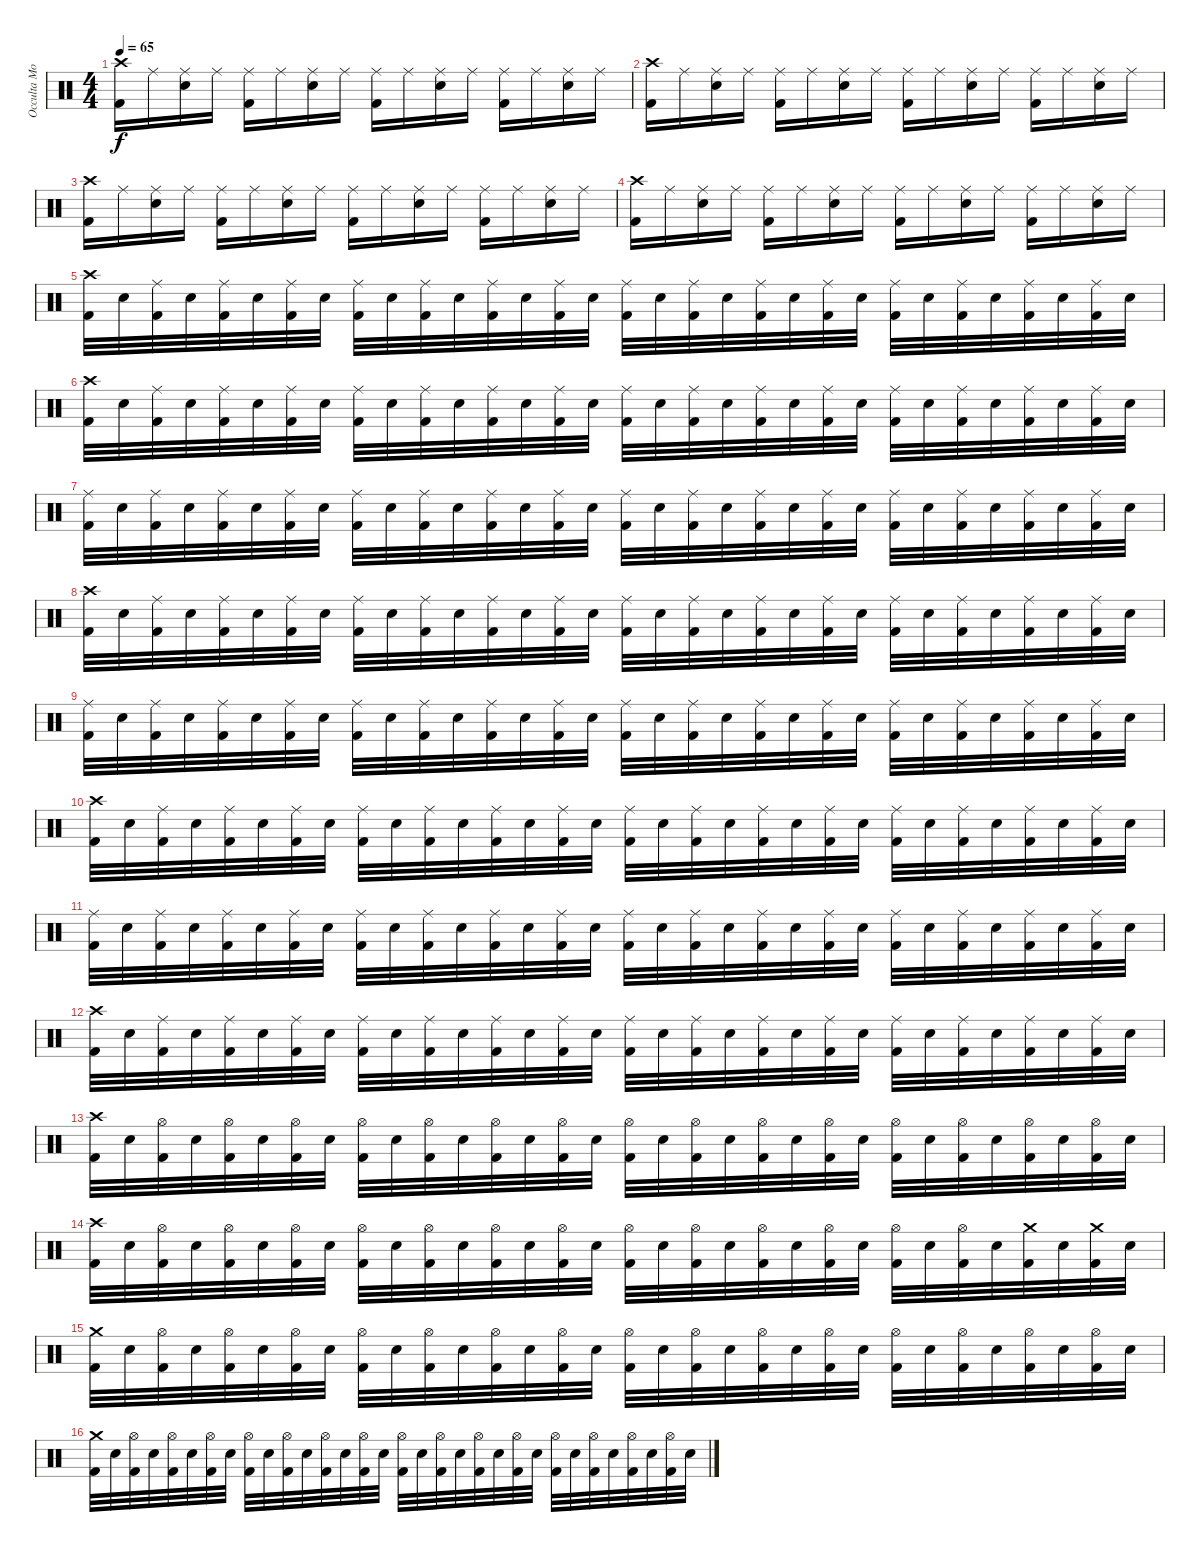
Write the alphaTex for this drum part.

\track ("Occulta Mors" "Occulta Mo") {instrument percussion}
\staff {score}
\articulation defaults
\ts (4 4)
\tempo 65
\clef neutral
\ks c
("Crash high (hit)" "Kick (hit) 2").16{dy f} "Ride (middle)".16 ("Ride (middle)" "Snare (hit) 2").16 "Ride (middle)".16 ("Ride (middle)" "Kick (hit) 2").16 "Ride (middle)".16 ("Ride (middle)" "Snare (hit) 2").16 "Ride (middle)".16 ("Ride (middle)" "Kick (hit) 2").16 "Ride (middle)".16 ("Ride (middle)" "Snare (hit) 2").16 "Ride (middle)".16 ("Ride (middle)" "Kick (hit) 2").16 "Ride (middle)".16 ("Ride (middle)" "Snare (hit) 2").16 "Ride (middle)".16 |
("Crash high (hit)" "Kick (hit) 2").16 "Ride (middle)".16 ("Ride (middle)" "Snare (hit) 2").16 "Ride (middle)".16 ("Ride (middle)" "Kick (hit) 2").16 "Ride (middle)".16 ("Ride (middle)" "Snare (hit) 2").16 "Ride (middle)".16 ("Ride (middle)" "Kick (hit) 2").16 "Ride (middle)".16 ("Ride (middle)" "Snare (hit) 2").16 "Ride (middle)".16 ("Ride (middle)" "Kick (hit) 2").16 "Ride (middle)".16 ("Ride (middle)" "Snare (hit) 2").16 "Ride (middle)".16 |
("Crash high (hit)" "Kick (hit) 2").16 "Ride (middle)".16 ("Ride (middle)" "Snare (hit) 2").16 "Ride (middle)".16 ("Ride (middle)" "Kick (hit) 2").16 "Ride (middle)".16 ("Ride (middle)" "Snare (hit) 2").16 "Ride (middle)".16 ("Ride (middle)" "Kick (hit) 2").16 "Ride (middle)".16 ("Ride (middle)" "Snare (hit) 2").16 "Ride (middle)".16 ("Ride (middle)" "Kick (hit) 2").16 "Ride (middle)".16 ("Ride (middle)" "Snare (hit) 2").16 "Ride (middle)".16 |
("Crash high (hit)" "Kick (hit) 2").16 "Ride (middle)".16 ("Ride (middle)" "Snare (hit) 2").16 "Ride (middle)".16 ("Ride (middle)" "Kick (hit) 2").16 "Ride (middle)".16 ("Ride (middle)" "Snare (hit) 2").16 "Ride (middle)".16 ("Ride (middle)" "Kick (hit) 2").16 "Ride (middle)".16 ("Ride (middle)" "Snare (hit) 2").16 "Ride (middle)".16 ("Ride (middle)" "Kick (hit) 2").16 "Ride (middle)".16 ("Ride (middle)" "Snare (hit) 2").16 "Ride (middle)".16 |
("Crash high (hit)" "Kick (hit) 2").32 "Snare (hit) 2".32 ("Ride (middle)" "Kick (hit) 2").32 "Snare (hit) 2".32 ("Ride (middle)" "Kick (hit) 2").32 "Snare (hit) 2".32 ("Ride (middle)" "Kick (hit) 2").32 "Snare (hit) 2".32 ("Ride (middle)" "Kick (hit) 2").32 "Snare (hit) 2".32 ("Ride (middle)" "Kick (hit) 2").32 "Snare (hit) 2".32 ("Ride (middle)" "Kick (hit) 2").32 "Snare (hit) 2".32 ("Ride (middle)" "Kick (hit) 2").32 "Snare (hit) 2".32 ("Ride (middle)" "Kick (hit) 2").32 "Snare (hit) 2".32 ("Ride (middle)" "Kick (hit) 2").32 "Snare (hit) 2".32 ("Ride (middle)" "Kick (hit) 2").32 "Snare (hit) 2".32 ("Ride (middle)" "Kick (hit) 2").32 "Snare (hit) 2".32 ("Ride (middle)" "Kick (hit) 2").32 "Snare (hit) 2".32 ("Ride (middle)" "Kick (hit) 2").32 "Snare (hit) 2".32 ("Ride (middle)" "Kick (hit) 2").32 "Snare (hit) 2".32 ("Ride (middle)" "Kick (hit) 2").32 "Snare (hit) 2".32 |
("Crash high (hit)" "Kick (hit) 2").32 "Snare (hit) 2".32 ("Ride (middle)" "Kick (hit) 2").32 "Snare (hit) 2".32 ("Ride (middle)" "Kick (hit) 2").32 "Snare (hit) 2".32 ("Ride (middle)" "Kick (hit) 2").32 "Snare (hit) 2".32 ("Ride (middle)" "Kick (hit) 2").32 "Snare (hit) 2".32 ("Ride (middle)" "Kick (hit) 2").32 "Snare (hit) 2".32 ("Ride (middle)" "Kick (hit) 2").32 "Snare (hit) 2".32 ("Ride (middle)" "Kick (hit) 2").32 "Snare (hit) 2".32 ("Ride (middle)" "Kick (hit) 2").32 "Snare (hit) 2".32 ("Ride (middle)" "Kick (hit) 2").32 "Snare (hit) 2".32 ("Ride (middle)" "Kick (hit) 2").32 "Snare (hit) 2".32 ("Ride (middle)" "Kick (hit) 2").32 "Snare (hit) 2".32 ("Ride (middle)" "Kick (hit) 2").32 "Snare (hit) 2".32 ("Ride (middle)" "Kick (hit) 2").32 "Snare (hit) 2".32 ("Ride (middle)" "Kick (hit) 2").32 "Snare (hit) 2".32 ("Ride (middle)" "Kick (hit) 2").32 "Snare (hit) 2".32 |
("Ride (middle)" "Kick (hit) 2").32 "Snare (hit) 2".32 ("Ride (middle)" "Kick (hit) 2").32 "Snare (hit) 2".32 ("Ride (middle)" "Kick (hit) 2").32 "Snare (hit) 2".32 ("Ride (middle)" "Kick (hit) 2").32 "Snare (hit) 2".32 ("Ride (middle)" "Kick (hit) 2").32 "Snare (hit) 2".32 ("Ride (middle)" "Kick (hit) 2").32 "Snare (hit) 2".32 ("Ride (middle)" "Kick (hit) 2").32 "Snare (hit) 2".32 ("Ride (middle)" "Kick (hit) 2").32 "Snare (hit) 2".32 ("Ride (middle)" "Kick (hit) 2").32 "Snare (hit) 2".32 ("Ride (middle)" "Kick (hit) 2").32 "Snare (hit) 2".32 ("Ride (middle)" "Kick (hit) 2").32 "Snare (hit) 2".32 ("Ride (middle)" "Kick (hit) 2").32 "Snare (hit) 2".32 ("Ride (middle)" "Kick (hit) 2").32 "Snare (hit) 2".32 ("Ride (middle)" "Kick (hit) 2").32 "Snare (hit) 2".32 ("Ride (middle)" "Kick (hit) 2").32 "Snare (hit) 2".32 ("Ride (middle)" "Kick (hit) 2").32 "Snare (hit) 2".32 |
("Crash high (hit)" "Kick (hit) 2").32 "Snare (hit) 2".32 ("Ride (middle)" "Kick (hit) 2").32 "Snare (hit) 2".32 ("Ride (middle)" "Kick (hit) 2").32 "Snare (hit) 2".32 ("Ride (middle)" "Kick (hit) 2").32 "Snare (hit) 2".32 ("Ride (middle)" "Kick (hit) 2").32 "Snare (hit) 2".32 ("Ride (middle)" "Kick (hit) 2").32 "Snare (hit) 2".32 ("Ride (middle)" "Kick (hit) 2").32 "Snare (hit) 2".32 ("Ride (middle)" "Kick (hit) 2").32 "Snare (hit) 2".32 ("Ride (middle)" "Kick (hit) 2").32 "Snare (hit) 2".32 ("Ride (middle)" "Kick (hit) 2").32 "Snare (hit) 2".32 ("Ride (middle)" "Kick (hit) 2").32 "Snare (hit) 2".32 ("Ride (middle)" "Kick (hit) 2").32 "Snare (hit) 2".32 ("Ride (middle)" "Kick (hit) 2").32 "Snare (hit) 2".32 ("Ride (middle)" "Kick (hit) 2").32 "Snare (hit) 2".32 ("Ride (middle)" "Kick (hit) 2").32 "Snare (hit) 2".32 ("Ride (middle)" "Kick (hit) 2").32 "Snare (hit) 2".32 |
("Ride (middle)" "Kick (hit) 2").32 "Snare (hit) 2".32 ("Ride (middle)" "Kick (hit) 2").32 "Snare (hit) 2".32 ("Ride (middle)" "Kick (hit) 2").32 "Snare (hit) 2".32 ("Ride (middle)" "Kick (hit) 2").32 "Snare (hit) 2".32 ("Ride (middle)" "Kick (hit) 2").32 "Snare (hit) 2".32 ("Ride (middle)" "Kick (hit) 2").32 "Snare (hit) 2".32 ("Ride (middle)" "Kick (hit) 2").32 "Snare (hit) 2".32 ("Ride (middle)" "Kick (hit) 2").32 "Snare (hit) 2".32 ("Ride (middle)" "Kick (hit) 2").32 "Snare (hit) 2".32 ("Ride (middle)" "Kick (hit) 2").32 "Snare (hit) 2".32 ("Ride (middle)" "Kick (hit) 2").32 "Snare (hit) 2".32 ("Ride (middle)" "Kick (hit) 2").32 "Snare (hit) 2".32 ("Ride (middle)" "Kick (hit) 2").32 "Snare (hit) 2".32 ("Ride (middle)" "Kick (hit) 2").32 "Snare (hit) 2".32 ("Ride (middle)" "Kick (hit) 2").32 "Snare (hit) 2".32 ("Ride (middle)" "Kick (hit) 2").32 "Snare (hit) 2".32 |
("Crash high (hit)" "Kick (hit) 2").32 "Snare (hit) 2".32 ("Ride (middle)" "Kick (hit) 2").32 "Snare (hit) 2".32 ("Ride (middle)" "Kick (hit) 2").32 "Snare (hit) 2".32 ("Ride (middle)" "Kick (hit) 2").32 "Snare (hit) 2".32 ("Ride (middle)" "Kick (hit) 2").32 "Snare (hit) 2".32 ("Ride (middle)" "Kick (hit) 2").32 "Snare (hit) 2".32 ("Ride (middle)" "Kick (hit) 2").32 "Snare (hit) 2".32 ("Ride (middle)" "Kick (hit) 2").32 "Snare (hit) 2".32 ("Ride (middle)" "Kick (hit) 2").32 "Snare (hit) 2".32 ("Ride (middle)" "Kick (hit) 2").32 "Snare (hit) 2".32 ("Ride (middle)" "Kick (hit) 2").32 "Snare (hit) 2".32 ("Ride (middle)" "Kick (hit) 2").32 "Snare (hit) 2".32 ("Ride (middle)" "Kick (hit) 2").32 "Snare (hit) 2".32 ("Ride (middle)" "Kick (hit) 2").32 "Snare (hit) 2".32 ("Ride (middle)" "Kick (hit) 2").32 "Snare (hit) 2".32 ("Ride (middle)" "Kick (hit) 2").32 "Snare (hit) 2".32 |
("Ride (middle)" "Kick (hit) 2").32 "Snare (hit) 2".32 ("Ride (middle)" "Kick (hit) 2").32 "Snare (hit) 2".32 ("Ride (middle)" "Kick (hit) 2").32 "Snare (hit) 2".32 ("Ride (middle)" "Kick (hit) 2").32 "Snare (hit) 2".32 ("Ride (middle)" "Kick (hit) 2").32 "Snare (hit) 2".32 ("Ride (middle)" "Kick (hit) 2").32 "Snare (hit) 2".32 ("Ride (middle)" "Kick (hit) 2").32 "Snare (hit) 2".32 ("Ride (middle)" "Kick (hit) 2").32 "Snare (hit) 2".32 ("Ride (middle)" "Kick (hit) 2").32 "Snare (hit) 2".32 ("Ride (middle)" "Kick (hit) 2").32 "Snare (hit) 2".32 ("Ride (middle)" "Kick (hit) 2").32 "Snare (hit) 2".32 ("Ride (middle)" "Kick (hit) 2").32 "Snare (hit) 2".32 ("Ride (middle)" "Kick (hit) 2").32 "Snare (hit) 2".32 ("Ride (middle)" "Kick (hit) 2").32 "Snare (hit) 2".32 ("Ride (middle)" "Kick (hit) 2").32 "Snare (hit) 2".32 ("Ride (middle)" "Kick (hit) 2").32 "Snare (hit) 2".32 |
("Crash high (hit)" "Kick (hit) 2").32 "Snare (hit) 2".32 ("Ride (middle)" "Kick (hit) 2").32 "Snare (hit) 2".32 ("Ride (middle)" "Kick (hit) 2").32 "Snare (hit) 2".32 ("Ride (middle)" "Kick (hit) 2").32 "Snare (hit) 2".32 ("Ride (middle)" "Kick (hit) 2").32 "Snare (hit) 2".32 ("Ride (middle)" "Kick (hit) 2").32 "Snare (hit) 2".32 ("Ride (middle)" "Kick (hit) 2").32 "Snare (hit) 2".32 ("Ride (middle)" "Kick (hit) 2").32 "Snare (hit) 2".32 ("Ride (middle)" "Kick (hit) 2").32 "Snare (hit) 2".32 ("Ride (middle)" "Kick (hit) 2").32 "Snare (hit) 2".32 ("Ride (middle)" "Kick (hit) 2").32 "Snare (hit) 2".32 ("Ride (middle)" "Kick (hit) 2").32 "Snare (hit) 2".32 ("Ride (middle)" "Kick (hit) 2").32 "Snare (hit) 2".32 ("Ride (middle)" "Kick (hit) 2").32 "Snare (hit) 2".32 ("Ride (middle)" "Kick (hit) 2").32 "Snare (hit) 2".32 ("Ride (middle)" "Kick (hit) 2").32 "Snare (hit) 2".32 |
("Crash high (hit)" "Kick (hit) 2").32 "Snare (hit) 2".32 ("Hi-Hat (open)" "Kick (hit) 2").32 "Snare (hit) 2".32 ("Hi-Hat (open)" "Kick (hit) 2").32 "Snare (hit) 2".32 ("Hi-Hat (open)" "Kick (hit) 2").32 "Snare (hit) 2".32 ("Hi-Hat (open)" "Kick (hit) 2").32 "Snare (hit) 2".32 ("Hi-Hat (open)" "Kick (hit) 2").32 "Snare (hit) 2".32 ("Hi-Hat (open)" "Kick (hit) 2").32 "Snare (hit) 2".32 ("Hi-Hat (open)" "Kick (hit) 2").32 "Snare (hit) 2".32 ("Hi-Hat (open)" "Kick (hit) 2").32 "Snare (hit) 2".32 ("Hi-Hat (open)" "Kick (hit) 2").32 "Snare (hit) 2".32 ("Hi-Hat (open)" "Kick (hit) 2").32 "Snare (hit) 2".32 ("Hi-Hat (open)" "Kick (hit) 2").32 "Snare (hit) 2".32 ("Hi-Hat (open)" "Kick (hit) 2").32 "Snare (hit) 2".32 ("Hi-Hat (open)" "Kick (hit) 2").32 "Snare (hit) 2".32 ("Hi-Hat (open)" "Kick (hit) 2").32 "Snare (hit) 2".32 ("Hi-Hat (open)" "Kick (hit) 2").32 "Snare (hit) 2".32 |
("Crash high (hit)" "Kick (hit) 2").32 "Snare (hit) 2".32 ("Hi-Hat (open)" "Kick (hit) 2").32 "Snare (hit) 2".32 ("Hi-Hat (open)" "Kick (hit) 2").32 "Snare (hit) 2".32 ("Hi-Hat (open)" "Kick (hit) 2").32 "Snare (hit) 2".32 ("Hi-Hat (open)" "Kick (hit) 2").32 "Snare (hit) 2".32 ("Hi-Hat (open)" "Kick (hit) 2").32 "Snare (hit) 2".32 ("Hi-Hat (open)" "Kick (hit) 2").32 "Snare (hit) 2".32 ("Hi-Hat (open)" "Kick (hit) 2").32 "Snare (hit) 2".32 ("Hi-Hat (open)" "Kick (hit) 2").32 "Snare (hit) 2".32 ("Hi-Hat (open)" "Kick (hit) 2").32 "Snare (hit) 2".32 ("Hi-Hat (open)" "Kick (hit) 2").32 "Snare (hit) 2".32 ("Hi-Hat (open)" "Kick (hit) 2").32 "Snare (hit) 2".32 ("Hi-Hat (open)" "Kick (hit) 2").32 "Snare (hit) 2".32 ("Hi-Hat (open)" "Kick (hit) 2").32 "Snare (hit) 2".32 ("Crash medium (hit)" "Kick (hit) 2").32 "Snare (hit) 2".32 ("Crash medium (hit)" "Kick (hit) 2").32 "Snare (hit) 2".32 |
("Crash medium (hit)" "Kick (hit) 2").32 "Snare (hit) 2".32 ("Hi-Hat (open)" "Kick (hit) 2").32 "Snare (hit) 2".32 ("Hi-Hat (open)" "Kick (hit) 2").32 "Snare (hit) 2".32 ("Hi-Hat (open)" "Kick (hit) 2").32 "Snare (hit) 2".32 ("Hi-Hat (open)" "Kick (hit) 2").32 "Snare (hit) 2".32 ("Hi-Hat (open)" "Kick (hit) 2").32 "Snare (hit) 2".32 ("Hi-Hat (open)" "Kick (hit) 2").32 "Snare (hit) 2".32 ("Hi-Hat (open)" "Kick (hit) 2").32 "Snare (hit) 2".32 ("Hi-Hat (open)" "Kick (hit) 2").32 "Snare (hit) 2".32 ("Hi-Hat (open)" "Kick (hit) 2").32 "Snare (hit) 2".32 ("Hi-Hat (open)" "Kick (hit) 2").32 "Snare (hit) 2".32 ("Hi-Hat (open)" "Kick (hit) 2").32 "Snare (hit) 2".32 ("Hi-Hat (open)" "Kick (hit) 2").32 "Snare (hit) 2".32 ("Hi-Hat (open)" "Kick (hit) 2").32 "Snare (hit) 2".32 ("Hi-Hat (open)" "Kick (hit) 2").32 "Snare (hit) 2".32 ("Hi-Hat (open)" "Kick (hit) 2").32 "Snare (hit) 2".32 |
("Crash medium (hit)" "Kick (hit) 2").32 "Snare (hit) 2".32 ("Hi-Hat (open)" "Kick (hit) 2").32 "Snare (hit) 2".32 ("Hi-Hat (open)" "Kick (hit) 2").32 "Snare (hit) 2".32 ("Hi-Hat (open)" "Kick (hit) 2").32 "Snare (hit) 2".32 ("Hi-Hat (open)" "Kick (hit) 2").32 "Snare (hit) 2".32 ("Hi-Hat (open)" "Kick (hit) 2").32 "Snare (hit) 2".32 ("Hi-Hat (open)" "Kick (hit) 2").32 "Snare (hit) 2".32 ("Hi-Hat (open)" "Kick (hit) 2").32 "Snare (hit) 2".32 ("Hi-Hat (open)" "Kick (hit) 2").32 "Snare (hit) 2".32 ("Hi-Hat (open)" "Kick (hit) 2").32 "Snare (hit) 2".32 ("Hi-Hat (open)" "Kick (hit) 2").32 "Snare (hit) 2".32 ("Hi-Hat (open)" "Kick (hit) 2").32 "Snare (hit) 2".32 ("Hi-Hat (open)" "Kick (hit) 2").32 "Snare (hit) 2".32 ("Hi-Hat (open)" "Kick (hit) 2").32 "Snare (hit) 2".32 ("Hi-Hat (open)" "Kick (hit) 2").32 "Snare (hit) 2".32 ("Hi-Hat (open)" "Kick (hit) 2").32 "Snare (hit) 2".32
